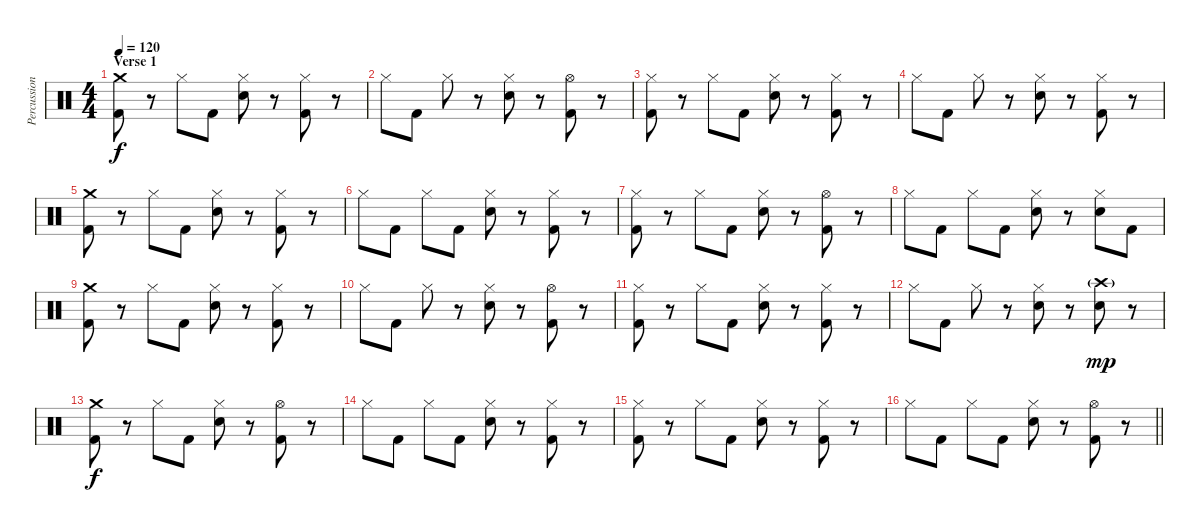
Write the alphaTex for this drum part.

\track ("Percussion" "Percussion") {instrument percussion}
\staff {score}
\articulation defaults
\ts (4 4)
\section ("" "Verse 1 ")
\tempo 120
\clef neutral
\ks c
("Crash medium (hit)" "Kick (hit) 2").8{dy f} r.8 "Hi-Hat (closed)".8 "Kick (hit) 2".8 ("Hi-Hat (closed)" "Electric Snare (hit)").8 r.8 ("Hi-Hat (closed)" "Kick (hit) 2").8 r.8 |
"Hi-Hat (closed)".8 "Kick (hit) 2".8 "Hi-Hat (closed)".8 r.8 ("Hi-Hat (closed)" "Electric Snare (hit)").8 r.8 ("Hi-Hat (open)" "Kick (hit) 2").8 r.8 |
("Hi-Hat (closed)" "Kick (hit) 2").8 r.8 "Hi-Hat (closed)".8 "Kick (hit) 2".8 ("Hi-Hat (closed)" "Electric Snare (hit)").8 r.8 ("Hi-Hat (closed)" "Kick (hit) 2").8 r.8 |
"Hi-Hat (closed)".8 "Kick (hit) 2".8 "Hi-Hat (closed)".8 r.8 ("Hi-Hat (closed)" "Electric Snare (hit)").8 r.8 ("Hi-Hat (closed)" "Kick (hit) 2").8 r.8 |
("Crash medium (hit)" "Kick (hit) 2").8 r.8 "Hi-Hat (closed)".8 "Kick (hit) 2".8 ("Hi-Hat (closed)" "Electric Snare (hit)").8 r.8 ("Hi-Hat (closed)" "Kick (hit) 2").8 r.8 |
"Hi-Hat (closed)".8 "Kick (hit) 2".8 "Hi-Hat (closed)".8 "Kick (hit) 2".8 ("Hi-Hat (closed)" "Electric Snare (hit)").8 r.8 ("Hi-Hat (closed)" "Kick (hit) 2").8 r.8 |
("Hi-Hat (closed)" "Kick (hit) 2").8 r.8 "Hi-Hat (closed)".8 "Kick (hit) 2".8 ("Hi-Hat (closed)" "Electric Snare (hit)").8 r.8 ("Hi-Hat (open)" "Kick (hit) 2").8 r.8 |
"Hi-Hat (closed)".8 "Kick (hit) 2".8 "Hi-Hat (closed)".8 "Kick (hit) 2".8 ("Hi-Hat (closed)" "Electric Snare (hit)").8 r.8 ("Hi-Hat (closed)" "Electric Snare (hit)").8 "Kick (hit) 2".8 |
("Crash medium (hit)" "Kick (hit) 2").8 r.8 "Hi-Hat (closed)".8 "Kick (hit) 2".8 ("Hi-Hat (closed)" "Electric Snare (hit)").8 r.8 ("Hi-Hat (closed)" "Kick (hit) 2").8 r.8 |
"Hi-Hat (closed)".8 "Kick (hit) 2".8 "Hi-Hat (closed)".8 r.8 ("Hi-Hat (closed)" "Electric Snare (hit)").8 r.8 ("Hi-Hat (open)" "Kick (hit) 2").8 r.8 |
("Hi-Hat (closed)" "Kick (hit) 2").8 r.8 "Hi-Hat (closed)".8 "Kick (hit) 2".8 ("Hi-Hat (closed)" "Electric Snare (hit)").8 r.8 ("Hi-Hat (closed)" "Kick (hit) 2").8 r.8 |
"Hi-Hat (closed)".8 "Kick (hit) 2".8 "Hi-Hat (closed)".8 r.8 ("Hi-Hat (closed)" "Electric Snare (hit)").8 r.8 ("Crash high (hit)"{g} "Electric Snare (hit)").8{dy mp} r.8 |
("Crash medium (hit)" "Kick (hit) 2").8{dy f} r.8 "Hi-Hat (closed)".8 "Kick (hit) 2".8 ("Hi-Hat (closed)" "Electric Snare (hit)").8 r.8 ("Hi-Hat (open)" "Kick (hit) 2").8 r.8 |
"Hi-Hat (closed)".8 "Kick (hit) 2".8 "Hi-Hat (closed)".8 "Kick (hit) 2".8 ("Hi-Hat (closed)" "Electric Snare (hit)").8 r.8 ("Hi-Hat (closed)" "Kick (hit) 2").8 r.8 |
("Hi-Hat (closed)" "Kick (hit) 2").8 r.8 "Hi-Hat (closed)".8 "Kick (hit) 2".8 ("Hi-Hat (closed)" "Electric Snare (hit)").8 r.8 ("Hi-Hat (closed)" "Kick (hit) 2").8 r.8 |
\barLineRight lightlight "Hi-Hat (closed)".8 "Kick (hit) 2".8 "Hi-Hat (closed)".8 "Kick (hit) 2".8
("Hi-Hat (closed)" "Electric Snare (hit)").8 r.8 ("Hi-Hat (open)" "Kick (hit) 2").8 r.8
